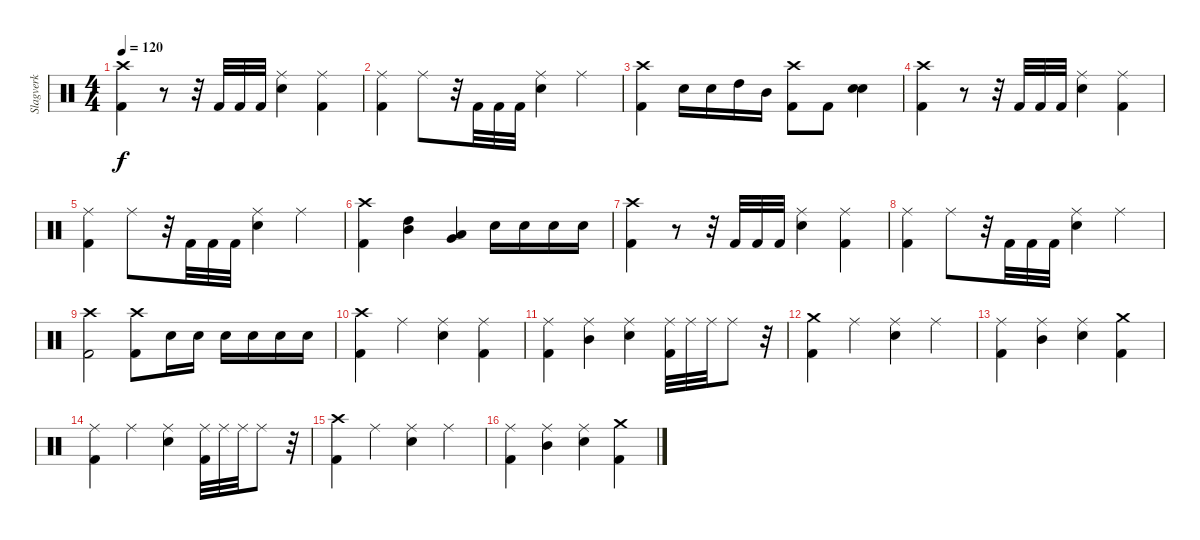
\track ("Slagverk" "Slagverk") {instrument percussion}
\staff {score}
\articulation defaults
\ts (4 4)
\tempo 120
\clef neutral
\ks c
("Crash high (hit)" "Kick (hit) 2").4{dy f} r.8 r.32 "Kick (hit) 2".32 "Kick (hit) 2".32 "Kick (hit) 2".32 ("Ride (middle)" "Electric Snare (hit)").4 ("Ride (middle)" "Kick (hit) 2").4 |
("Ride (middle)" "Kick (hit) 2").4 "Ride (middle)".8 r.32 "Kick (hit) 2".32 "Kick (hit) 2".32 "Kick (hit) 2".32 ("Ride (middle)" "Electric Snare (hit)").4 "Ride (middle)".4 |
("Crash high (hit)" "Kick (hit) 2").4 "Electric Snare (hit)".16 "Electric Snare (hit)".16 "High Tom (hit)".16 "Mid Tom (hit)".16 ("Crash high (hit)" "Kick (hit) 2").8 "Kick (hit) 2".8 ("Electric Snare (hit)" "Electric Snare (hit)").4 |
("Crash high (hit)" "Kick (hit) 2").4 r.8 r.32 "Kick (hit) 2".32 "Kick (hit) 2".32 "Kick (hit) 2".32 ("Ride (middle)" "Electric Snare (hit)").4 ("Ride (middle)" "Kick (hit) 2").4 |
("Ride (middle)" "Kick (hit) 2").4 "Ride (middle)".8 r.32 "Kick (hit) 2".32 "Kick (hit) 2".32 "Kick (hit) 2".32 ("Ride (middle)" "Electric Snare (hit)").4 "Ride (middle)".4 |
("Crash high (hit)" "Kick (hit) 2").4 ("High Tom (hit)" "Mid Tom (hit)").4 ("Low Floor Tom (hit)" "Very Low Tom (hit)").4 "Electric Snare (hit)".16 "Electric Snare (hit)".16 "Electric Snare (hit)".16 "Electric Snare (hit)".16 |
("Crash high (hit)" "Kick (hit) 2").4 r.8 r.32 "Kick (hit) 2".32 "Kick (hit) 2".32 "Kick (hit) 2".32 ("Ride (middle)" "Electric Snare (hit)").4 ("Ride (middle)" "Kick (hit) 2").4 |
("Ride (middle)" "Kick (hit) 2").4 "Ride (middle)".8 r.32 "Kick (hit) 2".32 "Kick (hit) 2".32 "Kick (hit) 2".32 ("Ride (middle)" "Electric Snare (hit)").4 "Ride (middle)".4 |
("Crash high (hit)" "Kick (hit) 2").2 ("Crash high (hit)" "Kick (hit) 2").8 "Electric Snare (hit)".16 "Electric Snare (hit)".16 "Electric Snare (hit)".16 "Electric Snare (hit)".16 "Electric Snare (hit)".16 "Electric Snare (hit)".16 |
("Crash high (hit)" "Kick (hit) 2").4 "Ride (middle)".4 ("Ride (middle)" "Electric Snare (hit)").4 ("Ride (middle)" "Kick (hit) 2").4 |
("Ride (middle)" "Kick (hit) 2").4 ("Ride (middle)" "Mid Tom (hit)").4 ("Ride (middle)" "Electric Snare (hit)").4 ("Ride (middle)" "Kick (hit) 2").32 "Ride (middle)".32 "Ride (middle)".32 "Ride (middle)".8 r.32 |
("Crash medium (hit)" "Kick (hit) 2").4 "Ride (middle)".4 ("Ride (middle)" "Electric Snare (hit)").4 "Ride (middle)".4 |
("Ride (middle)" "Kick (hit) 2").4 ("Ride (middle)" "Mid Tom (hit)").4 ("Ride (middle)" "Electric Snare (hit)").4 ("Crash medium (hit)" "Kick (hit) 2").4 |
("Ride (middle)" "Kick (hit) 2").4 "Ride (middle)".4 ("Ride (middle)" "Electric Snare (hit)").4 ("Ride (middle)" "Kick (hit) 2").32 "Ride (middle)".32 "Ride (middle)".32 "Ride (middle)".8 r.32 |
("Crash high (hit)" "Kick (hit) 2").4 "Ride (middle)".4 ("Ride (middle)" "Electric Snare (hit)").4 "Ride (middle)".4 |
("Ride (middle)" "Kick (hit) 2").4 ("Ride (middle)" "Mid Tom (hit)").4 ("Ride (middle)" "Electric Snare (hit)").4 ("Crash medium (hit)" "Kick (hit) 2").4
